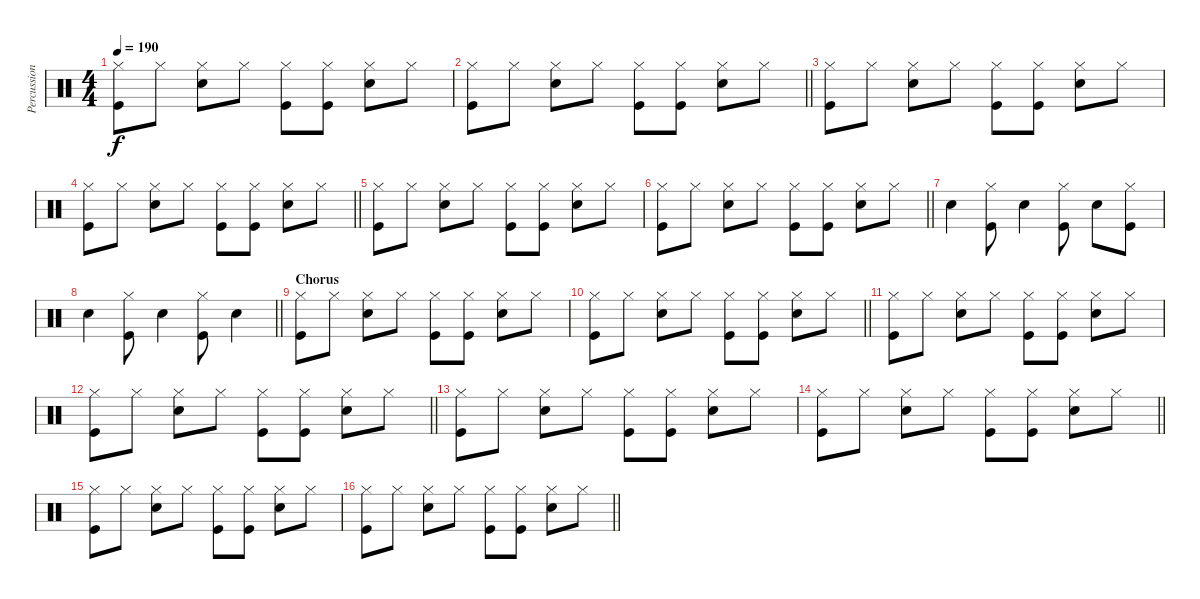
\track ("Percussion" "Percussion") {instrument percussion}
\staff {score}
\articulation defaults
\ts (4 4)
\tempo 190
\clef neutral
\ks c
("Hi-Hat (closed)" "Kick (hit)").8{dy f} "Hi-Hat (closed)".8 ("Snare (hit) 2" "Hi-Hat (closed)").8 "Hi-Hat (closed)".8 ("Hi-Hat (closed)" "Kick (hit)").8 ("Hi-Hat (closed)" "Kick (hit)").8 ("Snare (hit) 2" "Hi-Hat (closed)").8 "Hi-Hat (closed)".8 |
\barLineRight lightlight
("Hi-Hat (closed)" "Kick (hit)").8 "Hi-Hat (closed)".8 ("Snare (hit) 2" "Hi-Hat (closed)").8 "Hi-Hat (closed)".8 ("Hi-Hat (closed)" "Kick (hit)").8 ("Hi-Hat (closed)" "Kick (hit)").8 ("Snare (hit) 2" "Hi-Hat (closed)").8 "Hi-Hat (closed)".8 |
("Hi-Hat (closed)" "Kick (hit)").8 "Hi-Hat (closed)".8 ("Snare (hit) 2" "Hi-Hat (closed)").8 "Hi-Hat (closed)".8 ("Hi-Hat (closed)" "Kick (hit)").8 ("Hi-Hat (closed)" "Kick (hit)").8 ("Snare (hit) 2" "Hi-Hat (closed)").8 "Hi-Hat (closed)".8 |
\barLineRight lightlight
("Hi-Hat (closed)" "Kick (hit)").8 "Hi-Hat (closed)".8 ("Snare (hit) 2" "Hi-Hat (closed)").8 "Hi-Hat (closed)".8 ("Hi-Hat (closed)" "Kick (hit)").8 ("Hi-Hat (closed)" "Kick (hit)").8 ("Snare (hit) 2" "Hi-Hat (closed)").8 "Hi-Hat (closed)".8 |
("Hi-Hat (closed)" "Kick (hit)").8 "Hi-Hat (closed)".8 ("Snare (hit) 2" "Hi-Hat (closed)").8 "Hi-Hat (closed)".8 ("Hi-Hat (closed)" "Kick (hit)").8 ("Hi-Hat (closed)" "Kick (hit)").8 ("Snare (hit) 2" "Hi-Hat (closed)").8 "Hi-Hat (closed)".8 |
\barLineRight lightlight
("Hi-Hat (closed)" "Kick (hit)").8 "Hi-Hat (closed)".8 ("Snare (hit) 2" "Hi-Hat (closed)").8 "Hi-Hat (closed)".8 ("Hi-Hat (closed)" "Kick (hit)").8 ("Hi-Hat (closed)" "Kick (hit)").8 ("Snare (hit) 2" "Hi-Hat (closed)").8 "Hi-Hat (closed)".8 |
"Snare (hit) 2".4 ("Hi-Hat (closed)" "Kick (hit)").8 "Snare (hit) 2".4 ("Hi-Hat (closed)" "Kick (hit)").8 "Snare (hit) 2".8 ("Hi-Hat (closed)" "Kick (hit)").8 |
\barLineRight lightlight "Snare (hit) 2".4
("Hi-Hat (closed)" "Kick (hit)").8 "Snare (hit) 2".4 ("Hi-Hat (closed)" "Kick (hit)").8 "Snare (hit) 2".4 |
\section ("" "Chorus")
("Hi-Hat (closed)" "Kick (hit)").8 "Hi-Hat (closed)".8 ("Snare (hit) 2" "Hi-Hat (closed)").8 "Hi-Hat (closed)".8 ("Hi-Hat (closed)" "Kick (hit)").8 ("Hi-Hat (closed)" "Kick (hit)").8 ("Snare (hit) 2" "Hi-Hat (closed)").8 "Hi-Hat (closed)".8 |
\barLineRight lightlight
("Hi-Hat (closed)" "Kick (hit)").8 "Hi-Hat (closed)".8 ("Snare (hit) 2" "Hi-Hat (closed)").8 "Hi-Hat (closed)".8 ("Hi-Hat (closed)" "Kick (hit)").8 ("Hi-Hat (closed)" "Kick (hit)").8 ("Snare (hit) 2" "Hi-Hat (closed)").8 "Hi-Hat (closed)".8 |
("Hi-Hat (closed)" "Kick (hit)").8 "Hi-Hat (closed)".8 ("Snare (hit) 2" "Hi-Hat (closed)").8 "Hi-Hat (closed)".8 ("Hi-Hat (closed)" "Kick (hit)").8 ("Hi-Hat (closed)" "Kick (hit)").8 ("Snare (hit) 2" "Hi-Hat (closed)").8 "Hi-Hat (closed)".8 |
\barLineRight lightlight
("Hi-Hat (closed)" "Kick (hit)").8 "Hi-Hat (closed)".8 ("Snare (hit) 2" "Hi-Hat (closed)").8 "Hi-Hat (closed)".8 ("Hi-Hat (closed)" "Kick (hit)").8 ("Hi-Hat (closed)" "Kick (hit)").8 ("Snare (hit) 2" "Hi-Hat (closed)").8 "Hi-Hat (closed)".8 |
("Hi-Hat (closed)" "Kick (hit)").8 "Hi-Hat (closed)".8 ("Snare (hit) 2" "Hi-Hat (closed)").8 "Hi-Hat (closed)".8 ("Hi-Hat (closed)" "Kick (hit)").8 ("Hi-Hat (closed)" "Kick (hit)").8 ("Snare (hit) 2" "Hi-Hat (closed)").8 "Hi-Hat (closed)".8 |
\barLineRight lightlight
("Hi-Hat (closed)" "Kick (hit)").8 "Hi-Hat (closed)".8 ("Snare (hit) 2" "Hi-Hat (closed)").8 "Hi-Hat (closed)".8 ("Hi-Hat (closed)" "Kick (hit)").8 ("Hi-Hat (closed)" "Kick (hit)").8 ("Snare (hit) 2" "Hi-Hat (closed)").8 "Hi-Hat (closed)".8 |
("Hi-Hat (closed)" "Kick (hit)").8 "Hi-Hat (closed)".8 ("Snare (hit) 2" "Hi-Hat (closed)").8 "Hi-Hat (closed)".8 ("Hi-Hat (closed)" "Kick (hit)").8 ("Hi-Hat (closed)" "Kick (hit)").8 ("Snare (hit) 2" "Hi-Hat (closed)").8 "Hi-Hat (closed)".8 |
\barLineRight lightlight
("Hi-Hat (closed)" "Kick (hit)").8 "Hi-Hat (closed)".8 ("Snare (hit) 2" "Hi-Hat (closed)").8 "Hi-Hat (closed)".8 ("Hi-Hat (closed)" "Kick (hit)").8 ("Hi-Hat (closed)" "Kick (hit)").8 ("Snare (hit) 2" "Hi-Hat (closed)").8 "Hi-Hat (closed)".8
